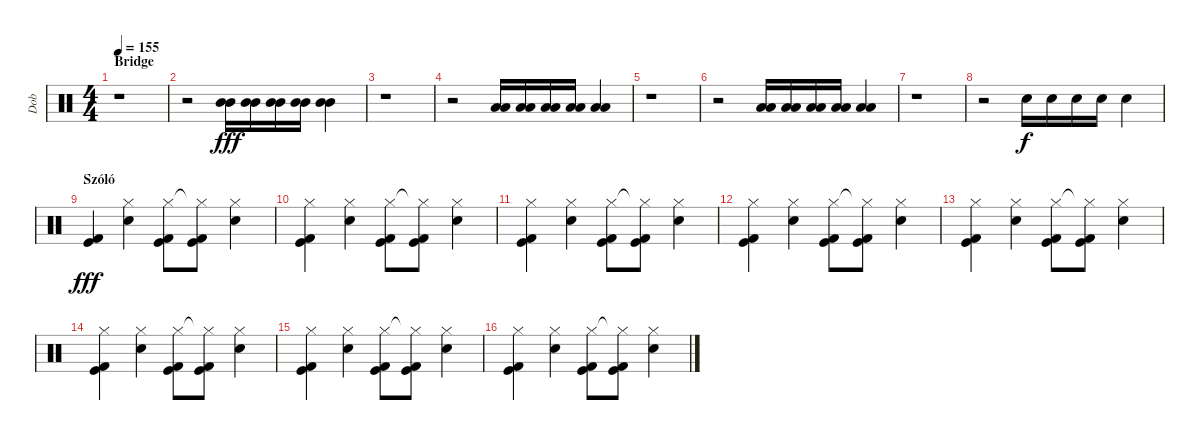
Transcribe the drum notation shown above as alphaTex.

\track ("Dob" "Dob") {instrument percussion}
\staff {score}
\articulation defaults
\ts (4 4)
\section ("" "Bridge")
\tempo 155
\clef neutral
\ks c
r.1{dy fff} |
r.2 ("Mid Tom (hit)" "Mid Tom (hit)").16 ("Mid Tom (hit)" "Mid Tom (hit)").16 ("Mid Tom (hit)" "Mid Tom (hit)").16 ("Mid Tom (hit)" "Mid Tom (hit)").16 ("Mid Tom (hit)" "Mid Tom (hit)").4 |
r.1 |
r.2 ("Low Floor Tom (hit)" "Low Floor Tom (hit)").16 ("Low Floor Tom (hit)" "Low Floor Tom (hit)").16 ("Low Floor Tom (hit)" "Low Floor Tom (hit)").16 ("Low Floor Tom (hit)" "Low Floor Tom (hit)").16 ("Low Floor Tom (hit)" "Low Floor Tom (hit)").4 |
r.1 |
r.2 ("Low Tom (hit)" "Low Tom (hit)").16 ("Low Tom (hit)" "Low Tom (hit)").16 ("Low Tom (hit)" "Low Tom (hit)").16 ("Low Tom (hit)" "Low Tom (hit)").16 ("Low Tom (hit)" "Low Tom (hit)").4 |
r.1 |
r.2 "Electric Snare (hit)".16{dy f} "Electric Snare (hit)".16 "Electric Snare (hit)".16 "Electric Snare (hit)".16 "Electric Snare (hit)".4 |
\section ("" "Szóló")
("Kick (hit) 2" "Kick (hit)").4{dy fff} ("Hi-Hat (closed)" "Electric Snare (hit)").4 ("Hi-Hat (closed)" "Kick (hit) 2" "Kick (hit)").8 ("Hi-Hat (closed)"{t} "Kick (hit) 2" "Kick (hit)").8 ("Hi-Hat (closed)" "Electric Snare (hit)").4 |
("Hi-Hat (closed)" "Kick (hit) 2" "Kick (hit)").4 ("Hi-Hat (closed)" "Electric Snare (hit)").4 ("Hi-Hat (closed)" "Kick (hit) 2" "Kick (hit)").8 ("Hi-Hat (closed)"{t} "Kick (hit) 2" "Kick (hit)").8 ("Hi-Hat (closed)" "Electric Snare (hit)").4 |
("Hi-Hat (closed)" "Kick (hit) 2" "Kick (hit)").4 ("Hi-Hat (closed)" "Electric Snare (hit)").4 ("Hi-Hat (closed)" "Kick (hit) 2" "Kick (hit)").8 ("Hi-Hat (closed)"{t} "Kick (hit) 2" "Kick (hit)").8 ("Hi-Hat (closed)" "Electric Snare (hit)").4 |
("Hi-Hat (closed)" "Kick (hit) 2" "Kick (hit)").4 ("Hi-Hat (closed)" "Electric Snare (hit)").4 ("Hi-Hat (closed)" "Kick (hit) 2" "Kick (hit)").8 ("Hi-Hat (closed)"{t} "Kick (hit) 2" "Kick (hit)").8 ("Hi-Hat (closed)" "Electric Snare (hit)").4 |
("Hi-Hat (closed)" "Kick (hit) 2" "Kick (hit)").4 ("Hi-Hat (closed)" "Electric Snare (hit)").4 ("Hi-Hat (closed)" "Kick (hit) 2" "Kick (hit)").8 ("Hi-Hat (closed)"{t} "Kick (hit) 2" "Kick (hit)").8 ("Hi-Hat (closed)" "Electric Snare (hit)").4 |
("Hi-Hat (closed)" "Kick (hit) 2" "Kick (hit)").4 ("Hi-Hat (closed)" "Electric Snare (hit)").4 ("Hi-Hat (closed)" "Kick (hit) 2" "Kick (hit)").8 ("Hi-Hat (closed)"{t} "Kick (hit) 2" "Kick (hit)").8 ("Hi-Hat (closed)" "Electric Snare (hit)").4 |
("Hi-Hat (closed)" "Kick (hit) 2" "Kick (hit)").4 ("Hi-Hat (closed)" "Electric Snare (hit)").4 ("Hi-Hat (closed)" "Kick (hit) 2" "Kick (hit)").8 ("Hi-Hat (closed)"{t} "Kick (hit) 2" "Kick (hit)").8 ("Hi-Hat (closed)" "Electric Snare (hit)").4 |
("Hi-Hat (closed)" "Kick (hit) 2" "Kick (hit)").4 ("Hi-Hat (closed)" "Electric Snare (hit)").4 ("Hi-Hat (closed)" "Kick (hit) 2" "Kick (hit)").8 ("Hi-Hat (closed)"{t} "Kick (hit) 2" "Kick (hit)").8 ("Hi-Hat (closed)" "Electric Snare (hit)").4
